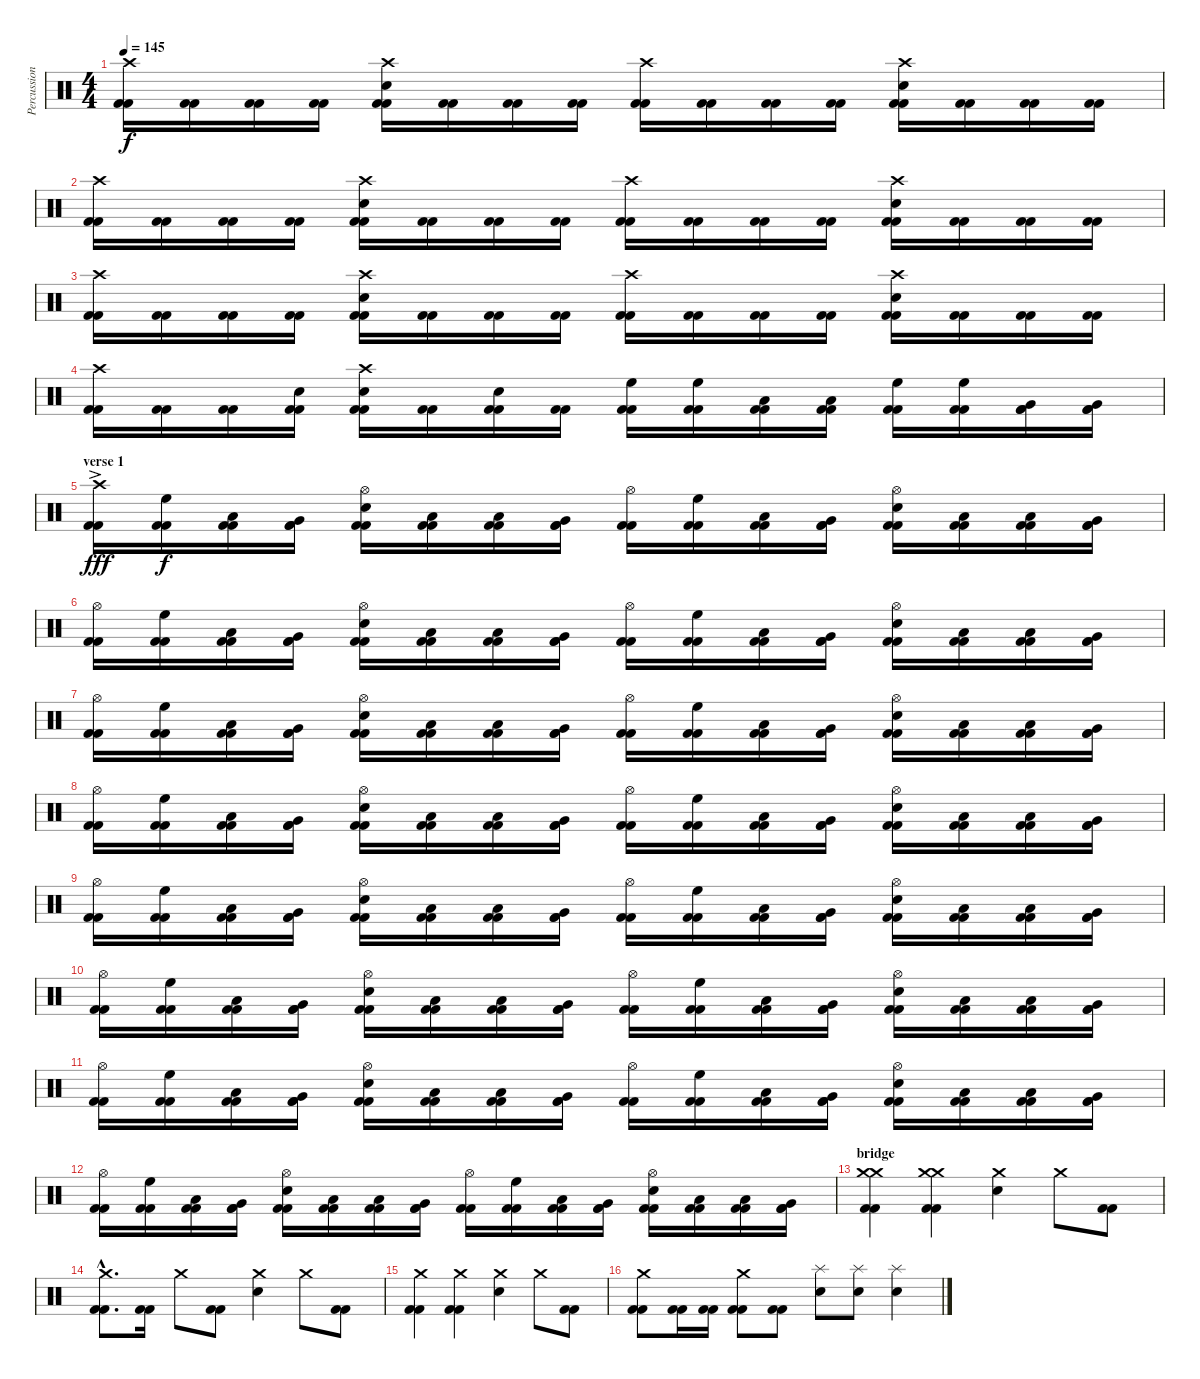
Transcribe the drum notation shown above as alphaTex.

\track ("Percussion" "Percussion") {instrument percussion}
\staff {score}
\articulation defaults
\ts (4 4)
\tempo 145
\clef neutral
\ks c
("Crash high (hit)" "Kick (hit) 2" "Kick (hit) 2").16{dy f} ("Kick (hit) 2" "Kick (hit) 2").16 ("Kick (hit) 2" "Kick (hit) 2").16 ("Kick (hit) 2" "Kick (hit) 2").16 ("Crash high (hit)" "Electric Snare (hit)" "Kick (hit) 2" "Kick (hit) 2").16 ("Kick (hit) 2" "Kick (hit) 2").16 ("Kick (hit) 2" "Kick (hit) 2").16 ("Kick (hit) 2" "Kick (hit) 2").16 ("Crash high (hit)" "Kick (hit) 2" "Kick (hit) 2").16 ("Kick (hit) 2" "Kick (hit) 2").16 ("Kick (hit) 2" "Kick (hit) 2").16 ("Kick (hit) 2" "Kick (hit) 2").16 ("Crash high (hit)" "Electric Snare (hit)" "Kick (hit) 2" "Kick (hit) 2").16 ("Kick (hit) 2" "Kick (hit) 2").16 ("Kick (hit) 2" "Kick (hit) 2").16 ("Kick (hit) 2" "Kick (hit) 2").16 |
("Crash high (hit)" "Kick (hit) 2" "Kick (hit) 2").16 ("Kick (hit) 2" "Kick (hit) 2").16 ("Kick (hit) 2" "Kick (hit) 2").16 ("Kick (hit) 2" "Kick (hit) 2").16 ("Crash high (hit)" "Electric Snare (hit)" "Kick (hit) 2" "Kick (hit) 2").16 ("Kick (hit) 2" "Kick (hit) 2").16 ("Kick (hit) 2" "Kick (hit) 2").16 ("Kick (hit) 2" "Kick (hit) 2").16 ("Crash high (hit)" "Kick (hit) 2" "Kick (hit) 2").16 ("Kick (hit) 2" "Kick (hit) 2").16 ("Kick (hit) 2" "Kick (hit) 2").16 ("Kick (hit) 2" "Kick (hit) 2").16 ("Crash high (hit)" "Electric Snare (hit)" "Kick (hit) 2" "Kick (hit) 2").16 ("Kick (hit) 2" "Kick (hit) 2").16 ("Kick (hit) 2" "Kick (hit) 2").16 ("Kick (hit) 2" "Kick (hit) 2").16 |
("Crash high (hit)" "Kick (hit) 2" "Kick (hit) 2").16 ("Kick (hit) 2" "Kick (hit) 2").16 ("Kick (hit) 2" "Kick (hit) 2").16 ("Kick (hit) 2" "Kick (hit) 2").16 ("Crash high (hit)" "Electric Snare (hit)" "Kick (hit) 2" "Kick (hit) 2").16 ("Kick (hit) 2" "Kick (hit) 2").16 ("Kick (hit) 2" "Kick (hit) 2").16 ("Kick (hit) 2" "Kick (hit) 2").16 ("Crash high (hit)" "Kick (hit) 2" "Kick (hit) 2").16 ("Kick (hit) 2" "Kick (hit) 2").16 ("Kick (hit) 2" "Kick (hit) 2").16 ("Kick (hit) 2" "Kick (hit) 2").16 ("Crash high (hit)" "Electric Snare (hit)" "Kick (hit) 2" "Kick (hit) 2").16 ("Kick (hit) 2" "Kick (hit) 2").16 ("Kick (hit) 2" "Kick (hit) 2").16 ("Kick (hit) 2" "Kick (hit) 2").16 |
("Crash high (hit)" "Kick (hit) 2" "Kick (hit) 2").16 ("Kick (hit) 2" "Kick (hit) 2").16 ("Kick (hit) 2" "Kick (hit) 2").16 ("Electric Snare (hit)" "Kick (hit) 2" "Kick (hit) 2").16 ("Crash high (hit)" "Electric Snare (hit)" "Kick (hit) 2" "Kick (hit) 2").16 ("Kick (hit) 2" "Kick (hit) 2").16 ("Electric Snare (hit)" "Kick (hit) 2" "Kick (hit) 2").16 ("Kick (hit) 2" "Kick (hit) 2").16 ("High Floor Tom (hit)" "Kick (hit) 2" "Kick (hit) 2").16 ("High Floor Tom (hit)" "Kick (hit) 2" "Kick (hit) 2").16 ("Low Tom (hit)" "Kick (hit) 2" "Kick (hit) 2").16 ("Low Tom (hit)" "Kick (hit) 2" "Kick (hit) 2").16 ("High Floor Tom (hit)" "Kick (hit) 2" "Kick (hit) 2").16 ("High Floor Tom (hit)" "Kick (hit) 2" "Kick (hit) 2").16 ("Very Low Tom (hit)" "Kick (hit) 2" "Kick (hit) 2").16 ("Very Low Tom (hit)" "Kick (hit) 2" "Kick (hit) 2").16 |
\section ("" "verse 1")
("Crash high (hit)"{ac} "Kick (hit) 2" "Kick (hit) 2").16{dy fff} ("High Floor Tom (hit)" "Kick (hit) 2" "Kick (hit) 2").16{dy f} ("Low Floor Tom (hit)" "Kick (hit) 2" "Kick (hit) 2").16 ("Very Low Tom (hit)" "Kick (hit) 2" "Kick (hit) 2").16 ("Hi-Hat (open)" "Electric Snare (hit)" "Kick (hit) 2" "Kick (hit) 2").16 ("Low Tom (hit)" "Kick (hit) 2" "Kick (hit) 2").16 ("Low Floor Tom (hit)" "Kick (hit) 2" "Kick (hit) 2").16 ("Very Low Tom (hit)" "Kick (hit) 2" "Kick (hit) 2").16 ("Hi-Hat (open)" "Kick (hit) 2" "Kick (hit) 2").16 ("High Floor Tom (hit)" "Kick (hit) 2" "Kick (hit) 2").16 ("Low Floor Tom (hit)" "Kick (hit) 2" "Kick (hit) 2").16 ("Very Low Tom (hit)" "Kick (hit) 2" "Kick (hit) 2").16 ("Hi-Hat (open)" "Electric Snare (hit)" "Kick (hit) 2" "Kick (hit) 2").16 ("Low Tom (hit)" "Kick (hit) 2" "Kick (hit) 2").16 ("Low Floor Tom (hit)" "Kick (hit) 2" "Kick (hit) 2").16 ("Very Low Tom (hit)" "Kick (hit) 2" "Kick (hit) 2").16 |
("Hi-Hat (open)" "Kick (hit) 2" "Kick (hit) 2").16 ("High Floor Tom (hit)" "Kick (hit) 2" "Kick (hit) 2").16 ("Low Floor Tom (hit)" "Kick (hit) 2" "Kick (hit) 2").16 ("Very Low Tom (hit)" "Kick (hit) 2" "Kick (hit) 2").16 ("Hi-Hat (open)" "Electric Snare (hit)" "Kick (hit) 2" "Kick (hit) 2").16 ("Low Tom (hit)" "Kick (hit) 2" "Kick (hit) 2").16 ("Low Floor Tom (hit)" "Kick (hit) 2" "Kick (hit) 2").16 ("Very Low Tom (hit)" "Kick (hit) 2" "Kick (hit) 2").16 ("Hi-Hat (open)" "Kick (hit) 2" "Kick (hit) 2").16 ("High Floor Tom (hit)" "Kick (hit) 2" "Kick (hit) 2").16 ("Low Floor Tom (hit)" "Kick (hit) 2" "Kick (hit) 2").16 ("Very Low Tom (hit)" "Kick (hit) 2" "Kick (hit) 2").16 ("Hi-Hat (open)" "Electric Snare (hit)" "Kick (hit) 2" "Kick (hit) 2").16 ("Low Tom (hit)" "Kick (hit) 2" "Kick (hit) 2").16 ("Low Floor Tom (hit)" "Kick (hit) 2" "Kick (hit) 2").16 ("Very Low Tom (hit)" "Kick (hit) 2" "Kick (hit) 2").16 |
("Hi-Hat (open)" "Kick (hit) 2" "Kick (hit) 2").16 ("High Floor Tom (hit)" "Kick (hit) 2" "Kick (hit) 2").16 ("Low Floor Tom (hit)" "Kick (hit) 2" "Kick (hit) 2").16 ("Very Low Tom (hit)" "Kick (hit) 2" "Kick (hit) 2").16 ("Hi-Hat (open)" "Electric Snare (hit)" "Kick (hit) 2" "Kick (hit) 2").16 ("Low Tom (hit)" "Kick (hit) 2" "Kick (hit) 2").16 ("Low Floor Tom (hit)" "Kick (hit) 2" "Kick (hit) 2").16 ("Very Low Tom (hit)" "Kick (hit) 2" "Kick (hit) 2").16 ("Hi-Hat (open)" "Kick (hit) 2" "Kick (hit) 2").16 ("High Floor Tom (hit)" "Kick (hit) 2" "Kick (hit) 2").16 ("Low Floor Tom (hit)" "Kick (hit) 2" "Kick (hit) 2").16 ("Very Low Tom (hit)" "Kick (hit) 2" "Kick (hit) 2").16 ("Hi-Hat (open)" "Electric Snare (hit)" "Kick (hit) 2" "Kick (hit) 2").16 ("Low Tom (hit)" "Kick (hit) 2" "Kick (hit) 2").16 ("Low Floor Tom (hit)" "Kick (hit) 2" "Kick (hit) 2").16 ("Very Low Tom (hit)" "Kick (hit) 2" "Kick (hit) 2").16 |
("Hi-Hat (open)" "Kick (hit) 2" "Kick (hit) 2").16 ("High Floor Tom (hit)" "Kick (hit) 2" "Kick (hit) 2").16 ("Low Floor Tom (hit)" "Kick (hit) 2" "Kick (hit) 2").16 ("Very Low Tom (hit)" "Kick (hit) 2" "Kick (hit) 2").16 ("Hi-Hat (open)" "Electric Snare (hit)" "Kick (hit) 2" "Kick (hit) 2").16 ("Low Tom (hit)" "Kick (hit) 2" "Kick (hit) 2").16 ("Low Floor Tom (hit)" "Kick (hit) 2" "Kick (hit) 2").16 ("Very Low Tom (hit)" "Kick (hit) 2" "Kick (hit) 2").16 ("Hi-Hat (open)" "Kick (hit) 2" "Kick (hit) 2").16 ("High Floor Tom (hit)" "Kick (hit) 2" "Kick (hit) 2").16 ("Low Floor Tom (hit)" "Kick (hit) 2" "Kick (hit) 2").16 ("Very Low Tom (hit)" "Kick (hit) 2" "Kick (hit) 2").16 ("Hi-Hat (open)" "Electric Snare (hit)" "Kick (hit) 2" "Kick (hit) 2").16 ("Low Tom (hit)" "Kick (hit) 2" "Kick (hit) 2").16 ("Low Floor Tom (hit)" "Kick (hit) 2" "Kick (hit) 2").16 ("Very Low Tom (hit)" "Kick (hit) 2" "Kick (hit) 2").16 |
("Hi-Hat (open)" "Kick (hit) 2" "Kick (hit) 2").16 ("High Floor Tom (hit)" "Kick (hit) 2" "Kick (hit) 2").16 ("Low Floor Tom (hit)" "Kick (hit) 2" "Kick (hit) 2").16 ("Very Low Tom (hit)" "Kick (hit) 2" "Kick (hit) 2").16 ("Hi-Hat (open)" "Electric Snare (hit)" "Kick (hit) 2" "Kick (hit) 2").16 ("Low Tom (hit)" "Kick (hit) 2" "Kick (hit) 2").16 ("Low Floor Tom (hit)" "Kick (hit) 2" "Kick (hit) 2").16 ("Very Low Tom (hit)" "Kick (hit) 2" "Kick (hit) 2").16 ("Hi-Hat (open)" "Kick (hit) 2" "Kick (hit) 2").16 ("High Floor Tom (hit)" "Kick (hit) 2" "Kick (hit) 2").16 ("Low Floor Tom (hit)" "Kick (hit) 2" "Kick (hit) 2").16 ("Very Low Tom (hit)" "Kick (hit) 2" "Kick (hit) 2").16 ("Hi-Hat (open)" "Electric Snare (hit)" "Kick (hit) 2" "Kick (hit) 2").16 ("Low Tom (hit)" "Kick (hit) 2" "Kick (hit) 2").16 ("Low Floor Tom (hit)" "Kick (hit) 2" "Kick (hit) 2").16 ("Very Low Tom (hit)" "Kick (hit) 2" "Kick (hit) 2").16 |
("Hi-Hat (open)" "Kick (hit) 2" "Kick (hit) 2").16 ("High Floor Tom (hit)" "Kick (hit) 2" "Kick (hit) 2").16 ("Low Floor Tom (hit)" "Kick (hit) 2" "Kick (hit) 2").16 ("Very Low Tom (hit)" "Kick (hit) 2" "Kick (hit) 2").16 ("Hi-Hat (open)" "Electric Snare (hit)" "Kick (hit) 2" "Kick (hit) 2").16 ("Low Tom (hit)" "Kick (hit) 2" "Kick (hit) 2").16 ("Low Floor Tom (hit)" "Kick (hit) 2" "Kick (hit) 2").16 ("Very Low Tom (hit)" "Kick (hit) 2" "Kick (hit) 2").16 ("Hi-Hat (open)" "Kick (hit) 2" "Kick (hit) 2").16 ("High Floor Tom (hit)" "Kick (hit) 2" "Kick (hit) 2").16 ("Low Floor Tom (hit)" "Kick (hit) 2" "Kick (hit) 2").16 ("Very Low Tom (hit)" "Kick (hit) 2" "Kick (hit) 2").16 ("Hi-Hat (open)" "Electric Snare (hit)" "Kick (hit) 2" "Kick (hit) 2").16 ("Low Tom (hit)" "Kick (hit) 2" "Kick (hit) 2").16 ("Low Floor Tom (hit)" "Kick (hit) 2" "Kick (hit) 2").16 ("Very Low Tom (hit)" "Kick (hit) 2" "Kick (hit) 2").16 |
("Hi-Hat (open)" "Kick (hit) 2" "Kick (hit) 2").16 ("High Floor Tom (hit)" "Kick (hit) 2" "Kick (hit) 2").16 ("Low Floor Tom (hit)" "Kick (hit) 2" "Kick (hit) 2").16 ("Very Low Tom (hit)" "Kick (hit) 2" "Kick (hit) 2").16 ("Hi-Hat (open)" "Electric Snare (hit)" "Kick (hit) 2" "Kick (hit) 2").16 ("Low Tom (hit)" "Kick (hit) 2" "Kick (hit) 2").16 ("Low Floor Tom (hit)" "Kick (hit) 2" "Kick (hit) 2").16 ("Very Low Tom (hit)" "Kick (hit) 2" "Kick (hit) 2").16 ("Hi-Hat (open)" "Kick (hit) 2" "Kick (hit) 2").16 ("High Floor Tom (hit)" "Kick (hit) 2" "Kick (hit) 2").16 ("Low Floor Tom (hit)" "Kick (hit) 2" "Kick (hit) 2").16 ("Very Low Tom (hit)" "Kick (hit) 2" "Kick (hit) 2").16 ("Hi-Hat (open)" "Electric Snare (hit)" "Kick (hit) 2" "Kick (hit) 2").16 ("Low Tom (hit)" "Kick (hit) 2" "Kick (hit) 2").16 ("Low Floor Tom (hit)" "Kick (hit) 2" "Kick (hit) 2").16 ("Very Low Tom (hit)" "Kick (hit) 2" "Kick (hit) 2").16 |
("Hi-Hat (open)" "Kick (hit) 2" "Kick (hit) 2").16 ("High Floor Tom (hit)" "Kick (hit) 2" "Kick (hit) 2").16 ("Low Floor Tom (hit)" "Kick (hit) 2" "Kick (hit) 2").16 ("Very Low Tom (hit)" "Kick (hit) 2" "Kick (hit) 2").16 ("Hi-Hat (open)" "Electric Snare (hit)" "Kick (hit) 2" "Kick (hit) 2").16 ("Low Tom (hit)" "Kick (hit) 2" "Kick (hit) 2").16 ("Low Floor Tom (hit)" "Kick (hit) 2" "Kick (hit) 2").16 ("Very Low Tom (hit)" "Kick (hit) 2" "Kick (hit) 2").16 ("Hi-Hat (open)" "Kick (hit) 2" "Kick (hit) 2").16 ("High Floor Tom (hit)" "Kick (hit) 2" "Kick (hit) 2").16 ("Low Floor Tom (hit)" "Kick (hit) 2" "Kick (hit) 2").16 ("Very Low Tom (hit)" "Kick (hit) 2" "Kick (hit) 2").16 ("Hi-Hat (open)" "Electric Snare (hit)" "Kick (hit) 2" "Kick (hit) 2").16 ("Low Tom (hit)" "Kick (hit) 2" "Kick (hit) 2").16 ("Low Floor Tom (hit)" "Kick (hit) 2" "Kick (hit) 2").16 ("Very Low Tom (hit)" "Kick (hit) 2" "Kick (hit) 2").16 |
\section ("" "bridge")
("Crash medium (hit)" "Crash medium (hit)" "Kick (hit) 2" "Kick (hit) 2").4 ("Crash medium (hit)" "Crash medium (hit)" "Kick (hit) 2" "Kick (hit) 2").4 ("Crash medium (hit)" "Electric Snare (hit)").4 "Crash medium (hit)".8 ("Kick (hit) 2" "Kick (hit) 2").8 |
("Crash medium (hit)"{hac} "Kick (hit) 2"{hac} "Kick (hit) 2"{hac}).8{d} ("Kick (hit) 2" "Kick (hit) 2").16 "Crash medium (hit)".8 ("Kick (hit) 2" "Kick (hit) 2").8 ("Crash medium (hit)" "Electric Snare (hit)").4 "Crash medium (hit)".8 ("Kick (hit) 2" "Kick (hit) 2").8 |
("Crash medium (hit)" "Kick (hit) 2" "Kick (hit) 2").4 ("Crash medium (hit)" "Kick (hit) 2" "Kick (hit) 2").4 ("Crash medium (hit)" "Electric Snare (hit)").4 "Crash medium (hit)".8 ("Kick (hit) 2" "Kick (hit) 2").8 |
("Crash medium (hit)" "Kick (hit) 2" "Kick (hit) 2").8 ("Kick (hit) 2" "Kick (hit) 2").16 ("Kick (hit) 2" "Kick (hit) 2").16 ("Crash medium (hit)" "Kick (hit) 2" "Kick (hit) 2").8 ("Kick (hit) 2" "Kick (hit) 2").8 ("Splash (hit)" "Electric Snare (hit)").8 ("Splash (hit)" "Electric Snare (hit)").8 ("Splash (hit)" "Electric Snare (hit)").4
